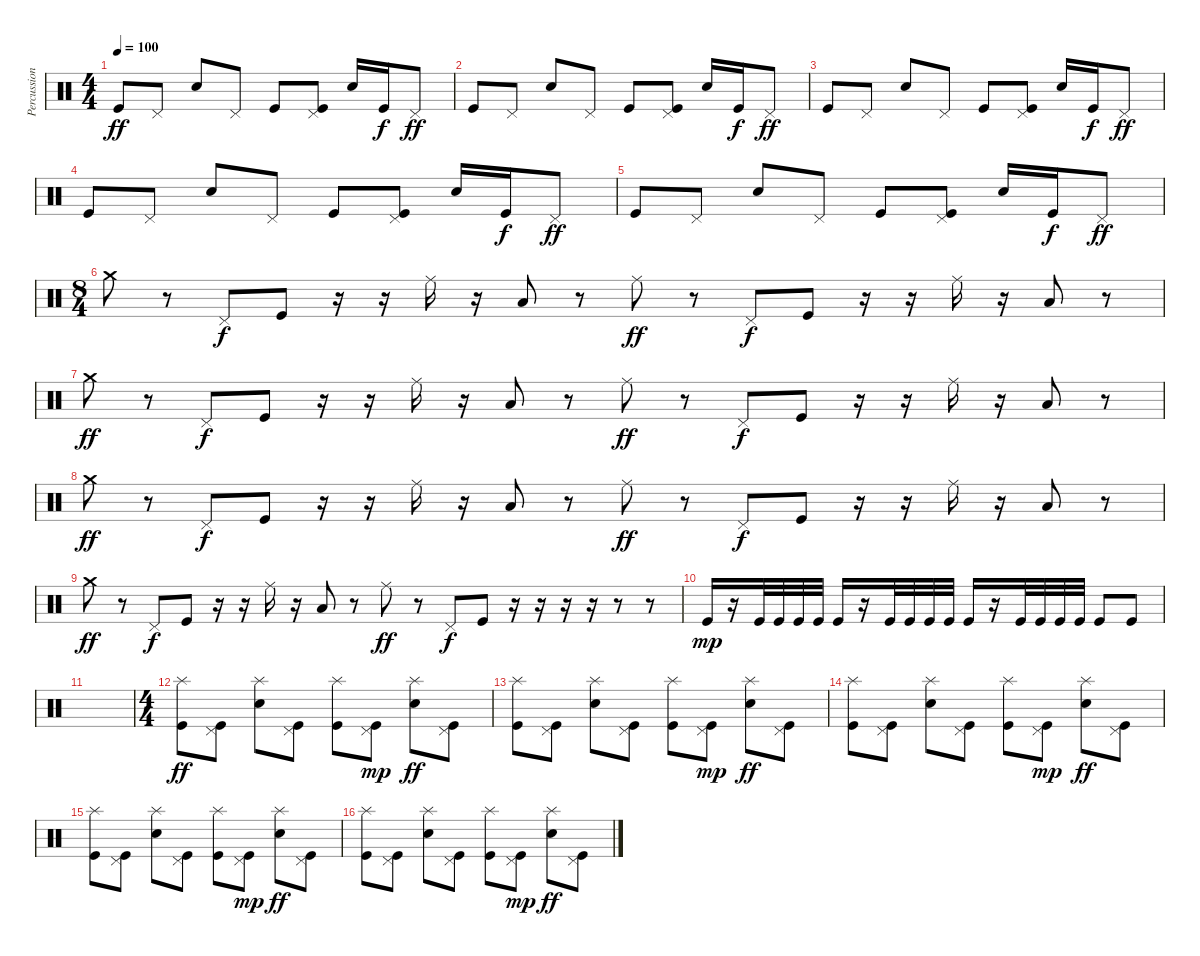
\track ("Percussion" "Percussion") {instrument percussion}
\staff {score}
\articulation defaults
\ts (4 4)
\tempo 100
\clef neutral
\ks c "Kick (hit)".8{dy ff} "Pedal Hi-Hat (hit)".8 "Electric Snare (hit)".8 "Pedal Hi-Hat (hit)".8 "Kick (hit)".8
("Pedal Hi-Hat (hit)" "Kick (hit)").8 "Electric Snare (hit)".16 "Kick (hit)".16{dy f} "Pedal Hi-Hat (hit)".8{dy ff} |
"Kick (hit)".8 "Pedal Hi-Hat (hit)".8 "Electric Snare (hit)".8 "Pedal Hi-Hat (hit)".8 "Kick (hit)".8 ("Pedal Hi-Hat (hit)" "Kick (hit)").8 "Electric Snare (hit)".16 "Kick (hit)".16{dy f} "Pedal Hi-Hat (hit)".8{dy ff} |
"Kick (hit)".8 "Pedal Hi-Hat (hit)".8 "Electric Snare (hit)".8 "Pedal Hi-Hat (hit)".8 "Kick (hit)".8 ("Pedal Hi-Hat (hit)" "Kick (hit)").8 "Electric Snare (hit)".16 "Kick (hit)".16{dy f} "Pedal Hi-Hat (hit)".8{dy ff} |
"Kick (hit)".8 "Pedal Hi-Hat (hit)".8 "Electric Snare (hit)".8 "Pedal Hi-Hat (hit)".8 "Kick (hit)".8 ("Pedal Hi-Hat (hit)" "Kick (hit)").8 "Electric Snare (hit)".16 "Kick (hit)".16{dy f} "Pedal Hi-Hat (hit)".8{dy ff} |
"Kick (hit)".8 "Pedal Hi-Hat (hit)".8 "Electric Snare (hit)".8 "Pedal Hi-Hat (hit)".8 "Kick (hit)".8 ("Pedal Hi-Hat (hit)" "Kick (hit)").8 "Electric Snare (hit)".16 "Kick (hit)".16{dy f} "Pedal Hi-Hat (hit)".8{dy ff} |
\ts (8 4)
"Crash medium (hit)".8 r.8 "Pedal Hi-Hat (hit)".8{dy f} "Kick (hit)".8 r.16 r.16 "Ride (middle)".16 r.16 "Low Tom (hit)".8 r.8 "Ride (middle)".8{dy ff} r.8 "Pedal Hi-Hat (hit)".8{dy f} "Kick (hit)".8 r.16 r.16 "Ride (middle)".16 r.16 "Low Tom (hit)".8 r.8 |
"Crash medium (hit)".8{dy ff} r.8 "Pedal Hi-Hat (hit)".8{dy f} "Kick (hit)".8 r.16 r.16 "Ride (middle)".16 r.16 "Low Tom (hit)".8 r.8 "Ride (middle)".8{dy ff} r.8 "Pedal Hi-Hat (hit)".8{dy f} "Kick (hit)".8 r.16 r.16 "Ride (middle)".16 r.16 "Low Tom (hit)".8 r.8 |
"Crash medium (hit)".8{dy ff} r.8 "Pedal Hi-Hat (hit)".8{dy f} "Kick (hit)".8 r.16 r.16 "Ride (middle)".16 r.16 "Low Tom (hit)".8 r.8 "Ride (middle)".8{dy ff} r.8 "Pedal Hi-Hat (hit)".8{dy f} "Kick (hit)".8 r.16 r.16 "Ride (middle)".16 r.16 "Low Tom (hit)".8 r.8 |
"Crash medium (hit)".8{dy ff} r.8 "Pedal Hi-Hat (hit)".8{dy f} "Kick (hit)".8 r.16 r.16 "Ride (middle)".16 r.16 "Low Tom (hit)".8 r.8 "Ride (middle)".8{dy ff} r.8 "Pedal Hi-Hat (hit)".8{dy f} "Kick (hit)".8 r.16 r.16 r.16 r.16 r.8 r.8 |
"Kick (hit)".16{dy mp} r.16 "Kick (hit)".32 "Kick (hit)".32 "Kick (hit)".32 "Kick (hit)".32 "Kick (hit)".16 r.16 "Kick (hit)".32 "Kick (hit)".32 "Kick (hit)".32 "Kick (hit)".32 "Kick (hit)".16 r.16 "Kick (hit)".32 "Kick (hit)".32 "Kick (hit)".32 "Kick (hit)".32 "Kick (hit)".8 "Kick (hit)".8 |
|
\ts (4 4)
("Splash (hit)" "Kick (hit)").8{dy ff} ("Pedal Hi-Hat (hit)" "Kick (hit)").8 ("Splash (hit)" "Electric Snare (hit)").8 ("Pedal Hi-Hat (hit)" "Kick (hit)").8 ("Splash (hit)" "Kick (hit)").8 ("Pedal Hi-Hat (hit)" "Kick (hit)").8{dy mp} ("Splash (hit)" "Electric Snare (hit)").8{dy ff} ("Pedal Hi-Hat (hit)" "Kick (hit)").8 |
("Splash (hit)" "Kick (hit)").8 ("Pedal Hi-Hat (hit)" "Kick (hit)").8 ("Splash (hit)" "Electric Snare (hit)").8 ("Pedal Hi-Hat (hit)" "Kick (hit)").8 ("Splash (hit)" "Kick (hit)").8 ("Pedal Hi-Hat (hit)" "Kick (hit)").8{dy mp} ("Splash (hit)" "Electric Snare (hit)").8{dy ff} ("Pedal Hi-Hat (hit)" "Kick (hit)").8 |
("Splash (hit)" "Kick (hit)").8 ("Pedal Hi-Hat (hit)" "Kick (hit)").8 ("Splash (hit)" "Electric Snare (hit)").8 ("Pedal Hi-Hat (hit)" "Kick (hit)").8 ("Splash (hit)" "Kick (hit)").8 ("Pedal Hi-Hat (hit)" "Kick (hit)").8{dy mp} ("Splash (hit)" "Electric Snare (hit)").8{dy ff} ("Pedal Hi-Hat (hit)" "Kick (hit)").8 |
("Splash (hit)" "Kick (hit)").8 ("Pedal Hi-Hat (hit)" "Kick (hit)").8 ("Splash (hit)" "Electric Snare (hit)").8 ("Pedal Hi-Hat (hit)" "Kick (hit)").8 ("Splash (hit)" "Kick (hit)").8 ("Pedal Hi-Hat (hit)" "Kick (hit)").8{dy mp} ("Splash (hit)" "Electric Snare (hit)").8{dy ff} ("Pedal Hi-Hat (hit)" "Kick (hit)").8 |
("Splash (hit)" "Kick (hit)").8 ("Pedal Hi-Hat (hit)" "Kick (hit)").8 ("Splash (hit)" "Electric Snare (hit)").8 ("Pedal Hi-Hat (hit)" "Kick (hit)").8 ("Splash (hit)" "Kick (hit)").8 ("Pedal Hi-Hat (hit)" "Kick (hit)").8{dy mp} ("Splash (hit)" "Electric Snare (hit)").8{dy ff} ("Pedal Hi-Hat (hit)" "Kick (hit)").8
